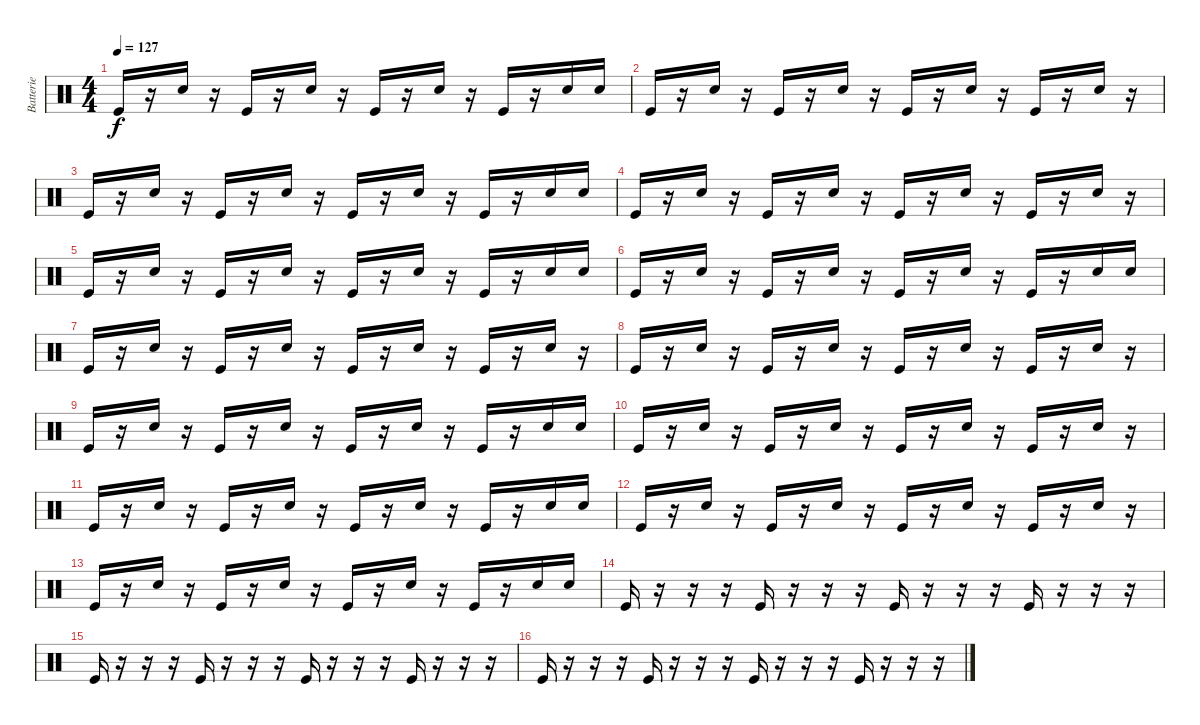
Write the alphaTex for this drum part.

\track ("Batterie" "Batterie") {instrument percussion}
\staff {score}
\articulation defaults
\ts (4 4)
\tempo 127
\clef neutral
\ks c "Kick (hit)".16{dy f}
r.16 "Snare (hit) 2".16 r.16 "Kick (hit)".16 r.16 "Snare (hit) 2".16 r.16 "Kick (hit)".16 r.16 "Snare (hit) 2".16 r.16 "Kick (hit)".16 r.16 "Snare (hit) 2".16 "Snare (hit) 2".16 |
"Kick (hit)".16 r.16 "Snare (hit) 2".16 r.16 "Kick (hit)".16 r.16 "Snare (hit) 2".16 r.16 "Kick (hit)".16 r.16 "Snare (hit) 2".16 r.16 "Kick (hit)".16 r.16 "Snare (hit) 2".16 r.16 |
"Kick (hit)".16 r.16 "Snare (hit) 2".16 r.16 "Kick (hit)".16 r.16 "Snare (hit) 2".16 r.16 "Kick (hit)".16 r.16 "Snare (hit) 2".16 r.16 "Kick (hit)".16 r.16 "Snare (hit) 2".16 "Snare (hit) 2".16 |
"Kick (hit)".16 r.16 "Snare (hit) 2".16 r.16 "Kick (hit)".16 r.16 "Snare (hit) 2".16 r.16 "Kick (hit)".16 r.16 "Snare (hit) 2".16 r.16 "Kick (hit)".16 r.16 "Snare (hit) 2".16 r.16 |
"Kick (hit)".16 r.16 "Snare (hit) 2".16 r.16 "Kick (hit)".16 r.16 "Snare (hit) 2".16 r.16 "Kick (hit)".16 r.16 "Snare (hit) 2".16 r.16 "Kick (hit)".16 r.16 "Snare (hit) 2".16 "Snare (hit) 2".16 |
"Kick (hit)".16 r.16 "Snare (hit) 2".16 r.16 "Kick (hit)".16 r.16 "Snare (hit) 2".16 r.16 "Kick (hit)".16 r.16 "Snare (hit) 2".16 r.16 "Kick (hit)".16 r.16 "Snare (hit) 2".16 "Snare (hit) 2".16 |
"Kick (hit)".16 r.16 "Snare (hit) 2".16 r.16 "Kick (hit)".16 r.16 "Snare (hit) 2".16 r.16 "Kick (hit)".16 r.16 "Snare (hit) 2".16 r.16 "Kick (hit)".16 r.16 "Snare (hit) 2".16 r.16 |
"Kick (hit)".16 r.16 "Snare (hit) 2".16 r.16 "Kick (hit)".16 r.16 "Snare (hit) 2".16 r.16 "Kick (hit)".16 r.16 "Snare (hit) 2".16 r.16 "Kick (hit)".16 r.16 "Snare (hit) 2".16 r.16 |
"Kick (hit)".16 r.16 "Snare (hit) 2".16 r.16 "Kick (hit)".16 r.16 "Snare (hit) 2".16 r.16 "Kick (hit)".16 r.16 "Snare (hit) 2".16 r.16 "Kick (hit)".16 r.16 "Snare (hit) 2".16 "Snare (hit) 2".16 |
"Kick (hit)".16 r.16 "Snare (hit) 2".16 r.16 "Kick (hit)".16 r.16 "Snare (hit) 2".16 r.16 "Kick (hit)".16 r.16 "Snare (hit) 2".16 r.16 "Kick (hit)".16 r.16 "Snare (hit) 2".16 r.16 |
"Kick (hit)".16 r.16 "Snare (hit) 2".16 r.16 "Kick (hit)".16 r.16 "Snare (hit) 2".16 r.16 "Kick (hit)".16 r.16 "Snare (hit) 2".16 r.16 "Kick (hit)".16 r.16 "Snare (hit) 2".16 "Snare (hit) 2".16 |
"Kick (hit)".16 r.16 "Snare (hit) 2".16 r.16 "Kick (hit)".16 r.16 "Snare (hit) 2".16 r.16 "Kick (hit)".16 r.16 "Snare (hit) 2".16 r.16 "Kick (hit)".16 r.16 "Snare (hit) 2".16 r.16 |
"Kick (hit)".16 r.16 "Snare (hit) 2".16 r.16 "Kick (hit)".16 r.16 "Snare (hit) 2".16 r.16 "Kick (hit)".16 r.16 "Snare (hit) 2".16 r.16 "Kick (hit)".16 r.16 "Snare (hit) 2".16 "Snare (hit) 2".16 |
"Kick (hit)".16 r.16 r.16 r.16 "Kick (hit)".16 r.16 r.16 r.16 "Kick (hit)".16 r.16 r.16 r.16 "Kick (hit)".16 r.16 r.16 r.16 |
"Kick (hit)".16 r.16 r.16 r.16 "Kick (hit)".16 r.16 r.16 r.16 "Kick (hit)".16 r.16 r.16 r.16 "Kick (hit)".16 r.16 r.16 r.16 |
"Kick (hit)".16 r.16 r.16 r.16 "Kick (hit)".16 r.16 r.16 r.16 "Kick (hit)".16 r.16 r.16 r.16 "Kick (hit)".16 r.16 r.16 r.16
